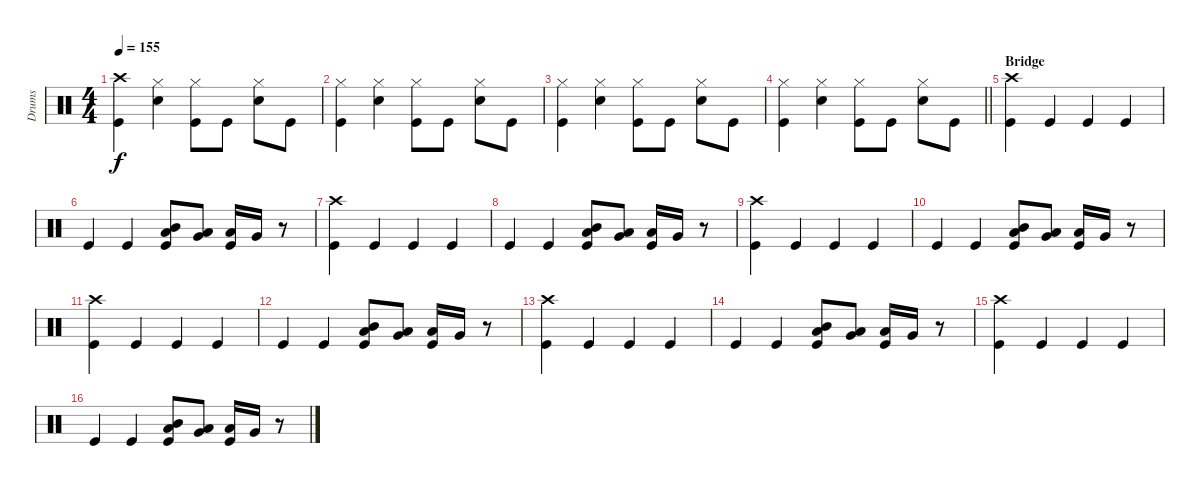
\track ("Drums" "Drums") {instrument percussion}
\staff {score}
\articulation defaults
\ts (4 4)
\tempo 155
\clef neutral
\ks c
("Crash high (hit)" "Kick (hit)").4{dy f} ("Hi-Hat (closed)" "Snare (hit) 2").4 ("Hi-Hat (closed)" "Kick (hit)").8 "Kick (hit)".8 ("Hi-Hat (closed)" "Snare (hit) 2").8 "Kick (hit)".8 |
("Hi-Hat (closed)" "Kick (hit)").4 ("Hi-Hat (closed)" "Snare (hit) 2").4 ("Hi-Hat (closed)" "Kick (hit)").8 "Kick (hit)".8 ("Hi-Hat (closed)" "Snare (hit) 2").8 "Kick (hit)".8 |
("Hi-Hat (closed)" "Kick (hit)").4 ("Hi-Hat (closed)" "Snare (hit) 2").4 ("Hi-Hat (closed)" "Kick (hit)").8 "Kick (hit)".8 ("Hi-Hat (closed)" "Snare (hit) 2").8 "Kick (hit)".8 |
\barLineRight lightlight
("Hi-Hat (closed)" "Kick (hit)").4 ("Hi-Hat (closed)" "Snare (hit) 2").4 ("Hi-Hat (closed)" "Kick (hit)").8 "Kick (hit)".8 ("Hi-Hat (closed)" "Snare (hit) 2").8 "Kick (hit)".8 |
\section ("" "Bridge")
("Crash high (hit)" "Kick (hit)").4 "Kick (hit)".4 "Kick (hit)".4 "Kick (hit)".4 |
"Kick (hit)".4 "Kick (hit)".4 ("Mid Tom (hit)" "Low Tom (hit)" "Kick (hit)").8 ("Low Tom (hit)" "Very Low Tom (hit)").8 ("Low Tom (hit)" "Kick (hit)").16 "Very Low Tom (hit)".16 r.8 |
("Crash high (hit)" "Kick (hit)").4 "Kick (hit)".4 "Kick (hit)".4 "Kick (hit)".4 |
"Kick (hit)".4 "Kick (hit)".4 ("Mid Tom (hit)" "Low Tom (hit)" "Kick (hit)").8 ("Low Tom (hit)" "Very Low Tom (hit)").8 ("Low Tom (hit)" "Kick (hit)").16 "Very Low Tom (hit)".16 r.8 |
("Crash high (hit)" "Kick (hit)").4 "Kick (hit)".4 "Kick (hit)".4 "Kick (hit)".4 |
"Kick (hit)".4 "Kick (hit)".4 ("Mid Tom (hit)" "Low Tom (hit)" "Kick (hit)").8 ("Low Tom (hit)" "Very Low Tom (hit)").8 ("Low Tom (hit)" "Kick (hit)").16 "Very Low Tom (hit)".16 r.8 |
("Crash high (hit)" "Kick (hit)").4 "Kick (hit)".4 "Kick (hit)".4 "Kick (hit)".4 |
"Kick (hit)".4 "Kick (hit)".4 ("Mid Tom (hit)" "Low Tom (hit)" "Kick (hit)").8 ("Low Tom (hit)" "Very Low Tom (hit)").8 ("Low Tom (hit)" "Kick (hit)").16 "Very Low Tom (hit)".16 r.8 |
("Crash high (hit)" "Kick (hit)").4 "Kick (hit)".4 "Kick (hit)".4 "Kick (hit)".4 |
"Kick (hit)".4 "Kick (hit)".4 ("Mid Tom (hit)" "Low Tom (hit)" "Kick (hit)").8 ("Low Tom (hit)" "Very Low Tom (hit)").8 ("Low Tom (hit)" "Kick (hit)").16 "Very Low Tom (hit)".16 r.8 |
("Crash high (hit)" "Kick (hit)").4 "Kick (hit)".4 "Kick (hit)".4 "Kick (hit)".4 |
"Kick (hit)".4 "Kick (hit)".4 ("Mid Tom (hit)" "Low Tom (hit)" "Kick (hit)").8 ("Low Tom (hit)" "Very Low Tom (hit)").8 ("Low Tom (hit)" "Kick (hit)").16 "Very Low Tom (hit)".16 r.8
